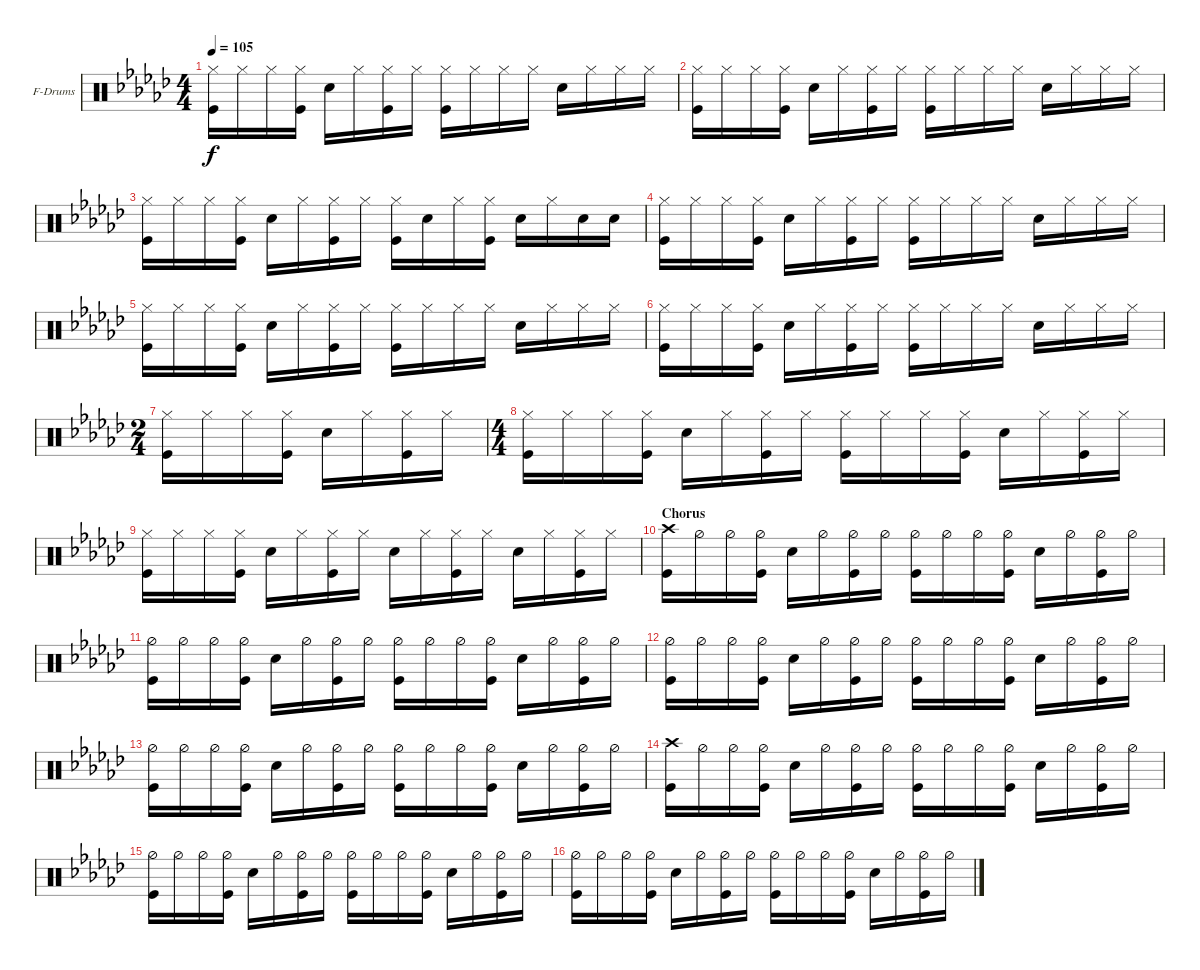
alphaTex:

\defaultSystemsLayout 4
\bracketExtendMode groupsimilarinstruments
\firstSystemTrackNameOrientation horizontal
\otherSystemsTrackNameOrientation horizontal
\track ("Fabrizio" "F-Drums") {instrument percussion}
\staff {score}
\articulation defaults
\ts (4 4)
\tempo 105
\clef neutral
\ks ebminor
("Kick (hit)" "Hi-Hat (closed)").16{dy f} "Hi-Hat (closed)".16 "Hi-Hat (closed)".16 ("Kick (hit)" "Hi-Hat (closed)").16 "Snare (hit) 2".16 "Hi-Hat (closed)".16 ("Kick (hit)" "Hi-Hat (closed)").16 "Hi-Hat (closed)".16 ("Kick (hit)" "Hi-Hat (closed)").16 "Hi-Hat (closed)".16 "Hi-Hat (closed)".16 "Hi-Hat (closed)".16 "Snare (hit) 2".16 "Hi-Hat (closed)".16 "Hi-Hat (closed)".16 "Hi-Hat (closed)".16 |
("Kick (hit)" "Hi-Hat (closed)").16 "Hi-Hat (closed)".16 "Hi-Hat (closed)".16 ("Kick (hit)" "Hi-Hat (closed)").16 "Snare (hit) 2".16 "Hi-Hat (closed)".16 ("Kick (hit)" "Hi-Hat (closed)").16 "Hi-Hat (closed)".16 ("Kick (hit)" "Hi-Hat (closed)").16 "Hi-Hat (closed)".16 "Hi-Hat (closed)".16 "Hi-Hat (closed)".16 "Snare (hit) 2".16 "Hi-Hat (closed)".16 "Hi-Hat (closed)".16 "Hi-Hat (closed)".16 |
("Kick (hit)" "Hi-Hat (closed)").16 "Hi-Hat (closed)".16 "Hi-Hat (closed)".16 ("Kick (hit)" "Hi-Hat (closed)").16 "Snare (hit) 2".16 "Hi-Hat (closed)".16 ("Kick (hit)" "Hi-Hat (closed)").16 "Hi-Hat (closed)".16 ("Kick (hit)" "Hi-Hat (closed)").16 "Snare (hit) 2".16 "Hi-Hat (closed)".16 ("Kick (hit)" "Hi-Hat (closed)").16 "Snare (hit) 2".16 "Hi-Hat (closed)".16 "Snare (hit) 2".16 "Snare (hit) 2".16 |
("Kick (hit)" "Hi-Hat (closed)").16 "Hi-Hat (closed)".16 "Hi-Hat (closed)".16 ("Kick (hit)" "Hi-Hat (closed)").16 "Snare (hit) 2".16 "Hi-Hat (closed)".16 ("Kick (hit)" "Hi-Hat (closed)").16 "Hi-Hat (closed)".16 ("Kick (hit)" "Hi-Hat (closed)").16 "Hi-Hat (closed)".16 "Hi-Hat (closed)".16 "Hi-Hat (closed)".16 "Snare (hit) 2".16 "Hi-Hat (closed)".16 "Hi-Hat (closed)".16 "Hi-Hat (closed)".16 |
("Kick (hit)" "Hi-Hat (closed)").16 "Hi-Hat (closed)".16 "Hi-Hat (closed)".16 ("Kick (hit)" "Hi-Hat (closed)").16 "Snare (hit) 2".16 "Hi-Hat (closed)".16 ("Kick (hit)" "Hi-Hat (closed)").16 "Hi-Hat (closed)".16 ("Kick (hit)" "Hi-Hat (closed)").16 "Hi-Hat (closed)".16 "Hi-Hat (closed)".16 "Hi-Hat (closed)".16 "Snare (hit) 2".16 "Hi-Hat (closed)".16 "Hi-Hat (closed)".16 "Hi-Hat (closed)".16 |
("Kick (hit)" "Hi-Hat (closed)").16 "Hi-Hat (closed)".16 "Hi-Hat (closed)".16 ("Kick (hit)" "Hi-Hat (closed)").16 "Snare (hit) 2".16 "Hi-Hat (closed)".16 ("Kick (hit)" "Hi-Hat (closed)").16 "Hi-Hat (closed)".16 ("Kick (hit)" "Hi-Hat (closed)").16 "Hi-Hat (closed)".16 "Hi-Hat (closed)".16 "Hi-Hat (closed)".16 "Snare (hit) 2".16 "Hi-Hat (closed)".16 "Hi-Hat (closed)".16 "Hi-Hat (closed)".16 |
\ts (2 4)
("Kick (hit)" "Hi-Hat (closed)").16 "Hi-Hat (closed)".16 "Hi-Hat (closed)".16 ("Kick (hit)" "Hi-Hat (closed)").16 "Snare (hit) 2".16 "Hi-Hat (closed)".16 ("Kick (hit)" "Hi-Hat (closed)").16 "Hi-Hat (closed)".16 |
\ts (4 4)
("Kick (hit)" "Hi-Hat (closed)").16 "Hi-Hat (closed)".16 "Hi-Hat (closed)".16 ("Kick (hit)" "Hi-Hat (closed)").16 "Snare (hit) 2".16 "Hi-Hat (closed)".16 ("Kick (hit)" "Hi-Hat (closed)").16 "Hi-Hat (closed)".16 ("Kick (hit)" "Hi-Hat (closed)").16 "Hi-Hat (closed)".16 "Hi-Hat (closed)".16 ("Kick (hit)" "Hi-Hat (closed)").16 "Snare (hit) 2".16 "Hi-Hat (closed)".16 ("Kick (hit)" "Hi-Hat (closed)").16 "Hi-Hat (closed)".16 |
("Kick (hit)" "Hi-Hat (closed)").16 "Hi-Hat (closed)".16 "Hi-Hat (closed)".16 ("Kick (hit)" "Hi-Hat (closed)").16 "Snare (hit) 2".16 "Hi-Hat (closed)".16 ("Kick (hit)" "Hi-Hat (closed)").16 "Hi-Hat (closed)".16 "Snare (hit) 2".16 "Hi-Hat (closed)".16 ("Kick (hit)" "Hi-Hat (closed)").16 "Hi-Hat (closed)".16 "Snare (hit) 2".16 "Hi-Hat (closed)".16 ("Kick (hit)" "Hi-Hat (closed)").16 "Hi-Hat (closed)".16 |
\section ("" "Chorus")
("Kick (hit)" "Crash high (hit)").16 "Hi-Hat (half)".16 "Hi-Hat (half)".16 ("Kick (hit)" "Hi-Hat (half)").16 "Snare (hit) 2".16 "Hi-Hat (half)".16 ("Kick (hit)" "Hi-Hat (half)").16 "Hi-Hat (half)".16 ("Kick (hit)" "Hi-Hat (half)").16 "Hi-Hat (half)".16 "Hi-Hat (half)".16 ("Kick (hit)" "Hi-Hat (half)").16 "Snare (hit) 2".16 "Hi-Hat (half)".16 ("Kick (hit)" "Hi-Hat (half)").16 "Hi-Hat (half)".16 |
("Kick (hit)" "Hi-Hat (half)").16 "Hi-Hat (half)".16 "Hi-Hat (half)".16 ("Kick (hit)" "Hi-Hat (half)").16 "Snare (hit) 2".16 "Hi-Hat (half)".16 ("Kick (hit)" "Hi-Hat (half)").16 "Hi-Hat (half)".16 ("Kick (hit)" "Hi-Hat (half)").16 "Hi-Hat (half)".16 "Hi-Hat (half)".16 ("Kick (hit)" "Hi-Hat (half)").16 "Snare (hit) 2".16 "Hi-Hat (half)".16 ("Kick (hit)" "Hi-Hat (half)").16 "Hi-Hat (half)".16 |
("Kick (hit)" "Hi-Hat (half)").16 "Hi-Hat (half)".16 "Hi-Hat (half)".16 ("Kick (hit)" "Hi-Hat (half)").16 "Snare (hit) 2".16 "Hi-Hat (half)".16 ("Kick (hit)" "Hi-Hat (half)").16 "Hi-Hat (half)".16 ("Kick (hit)" "Hi-Hat (half)").16 "Hi-Hat (half)".16 "Hi-Hat (half)".16 ("Kick (hit)" "Hi-Hat (half)").16 "Snare (hit) 2".16 "Hi-Hat (half)".16 ("Kick (hit)" "Hi-Hat (half)").16 "Hi-Hat (half)".16 |
("Kick (hit)" "Hi-Hat (half)").16 "Hi-Hat (half)".16 "Hi-Hat (half)".16 ("Kick (hit)" "Hi-Hat (half)").16 "Snare (hit) 2".16 "Hi-Hat (half)".16 ("Kick (hit)" "Hi-Hat (half)").16 "Hi-Hat (half)".16 ("Kick (hit)" "Hi-Hat (half)").16 "Hi-Hat (half)".16 "Hi-Hat (half)".16 ("Kick (hit)" "Hi-Hat (half)").16 "Snare (hit) 2".16 "Hi-Hat (half)".16 ("Kick (hit)" "Hi-Hat (half)").16 "Hi-Hat (half)".16 |
("Kick (hit)" "Crash high (hit)").16 "Hi-Hat (half)".16 "Hi-Hat (half)".16 ("Kick (hit)" "Hi-Hat (half)").16 "Snare (hit) 2".16 "Hi-Hat (half)".16 ("Kick (hit)" "Hi-Hat (half)").16 "Hi-Hat (half)".16 ("Kick (hit)" "Hi-Hat (half)").16 "Hi-Hat (half)".16 "Hi-Hat (half)".16 ("Kick (hit)" "Hi-Hat (half)").16 "Snare (hit) 2".16 "Hi-Hat (half)".16 ("Kick (hit)" "Hi-Hat (half)").16 "Hi-Hat (half)".16 |
("Kick (hit)" "Hi-Hat (half)").16 "Hi-Hat (half)".16 "Hi-Hat (half)".16 ("Kick (hit)" "Hi-Hat (half)").16 "Snare (hit) 2".16 "Hi-Hat (half)".16 ("Kick (hit)" "Hi-Hat (half)").16 "Hi-Hat (half)".16 ("Kick (hit)" "Hi-Hat (half)").16 "Hi-Hat (half)".16 "Hi-Hat (half)".16 ("Kick (hit)" "Hi-Hat (half)").16 "Snare (hit) 2".16 "Hi-Hat (half)".16 ("Kick (hit)" "Hi-Hat (half)").16 "Hi-Hat (half)".16 |
("Kick (hit)" "Hi-Hat (half)").16 "Hi-Hat (half)".16 "Hi-Hat (half)".16 ("Kick (hit)" "Hi-Hat (half)").16 "Snare (hit) 2".16 "Hi-Hat (half)".16 ("Kick (hit)" "Hi-Hat (half)").16 "Hi-Hat (half)".16 ("Kick (hit)" "Hi-Hat (half)").16 "Hi-Hat (half)".16 "Hi-Hat (half)".16 ("Kick (hit)" "Hi-Hat (half)").16 "Snare (hit) 2".16 "Hi-Hat (half)".16 ("Kick (hit)" "Hi-Hat (half)").16 "Hi-Hat (half)".16
